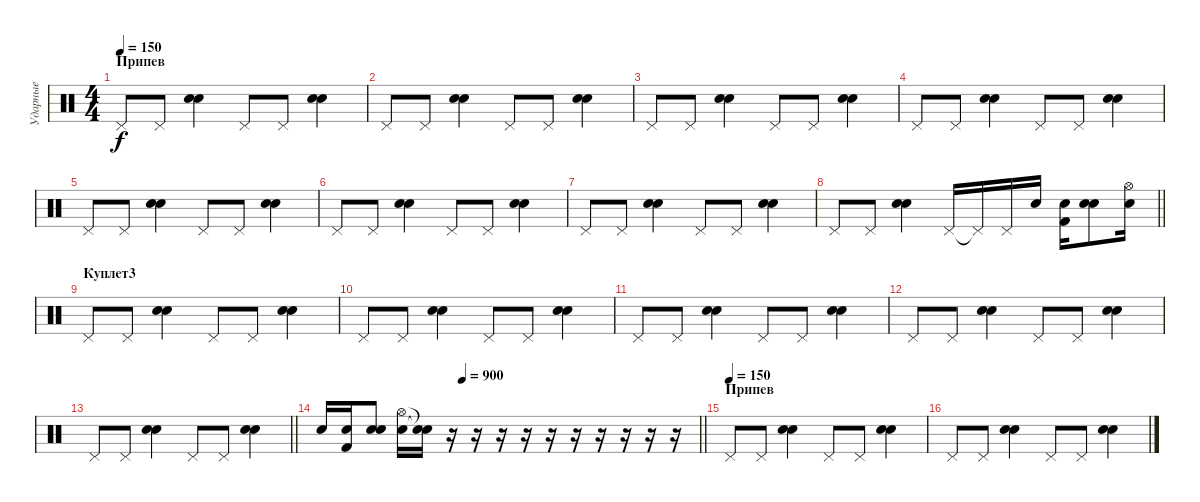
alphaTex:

\track ("Ударные" "Ударные") {instrument percussion}
\staff {score}
\articulation defaults
\ts (4 4)
\section ("" "Припев")
\tempo 150
\clef neutral
\ks c "Pedal Hi-Hat (hit)".8{dy f} "Pedal Hi-Hat (hit)".8
("Electric Snare (hit)" "Snare (hit) 2").4 "Pedal Hi-Hat (hit)".8 "Pedal Hi-Hat (hit)".8 ("Electric Snare (hit)" "Snare (hit) 2").4 |
"Pedal Hi-Hat (hit)".8 "Pedal Hi-Hat (hit)".8 ("Electric Snare (hit)" "Snare (hit) 2").4 "Pedal Hi-Hat (hit)".8 "Pedal Hi-Hat (hit)".8 ("Electric Snare (hit)" "Snare (hit) 2").4 |
"Pedal Hi-Hat (hit)".8 "Pedal Hi-Hat (hit)".8 ("Electric Snare (hit)" "Snare (hit) 2").4 "Pedal Hi-Hat (hit)".8 "Pedal Hi-Hat (hit)".8 ("Electric Snare (hit)" "Snare (hit) 2").4 |
"Pedal Hi-Hat (hit)".8 "Pedal Hi-Hat (hit)".8 ("Electric Snare (hit)" "Snare (hit) 2").4 "Pedal Hi-Hat (hit)".8 "Pedal Hi-Hat (hit)".8 ("Electric Snare (hit)" "Snare (hit) 2").4 |
"Pedal Hi-Hat (hit)".8 "Pedal Hi-Hat (hit)".8 ("Electric Snare (hit)" "Snare (hit) 2").4 "Pedal Hi-Hat (hit)".8 "Pedal Hi-Hat (hit)".8 ("Electric Snare (hit)" "Snare (hit) 2").4 |
"Pedal Hi-Hat (hit)".8 "Pedal Hi-Hat (hit)".8 ("Electric Snare (hit)" "Snare (hit) 2").4 "Pedal Hi-Hat (hit)".8 "Pedal Hi-Hat (hit)".8 ("Electric Snare (hit)" "Snare (hit) 2").4 |
"Pedal Hi-Hat (hit)".8 "Pedal Hi-Hat (hit)".8 ("Electric Snare (hit)" "Snare (hit) 2").4 "Pedal Hi-Hat (hit)".8 "Pedal Hi-Hat (hit)".8 ("Electric Snare (hit)" "Snare (hit) 2").4 |
\barLineRight lightlight "Pedal Hi-Hat (hit)".8 "Pedal Hi-Hat (hit)".8
("Electric Snare (hit)" "Snare (hit) 2").4 "Pedal Hi-Hat (hit)".16 "Pedal Hi-Hat (hit)"{t}.16 "Pedal Hi-Hat (hit)".16 "Electric Snare (hit)".16 ("Electric Snare (hit)" "Kick (hit) 2").16 ("Electric Snare (hit)" "Snare (hit) 2").8 ("Hi-Hat (open)" "Electric Snare (hit)").16 |
\section ("" "Куплет3")
"Pedal Hi-Hat (hit)".8 "Pedal Hi-Hat (hit)".8 ("Electric Snare (hit)" "Snare (hit) 2").4 "Pedal Hi-Hat (hit)".8 "Pedal Hi-Hat (hit)".8 ("Electric Snare (hit)" "Snare (hit) 2").4 |
"Pedal Hi-Hat (hit)".8 "Pedal Hi-Hat (hit)".8 ("Electric Snare (hit)" "Snare (hit) 2").4 "Pedal Hi-Hat (hit)".8 "Pedal Hi-Hat (hit)".8 ("Electric Snare (hit)" "Snare (hit) 2").4 |
"Pedal Hi-Hat (hit)".8 "Pedal Hi-Hat (hit)".8 ("Electric Snare (hit)" "Snare (hit) 2").4 "Pedal Hi-Hat (hit)".8 "Pedal Hi-Hat (hit)".8 ("Electric Snare (hit)" "Snare (hit) 2").4 |
"Pedal Hi-Hat (hit)".8 "Pedal Hi-Hat (hit)".8 ("Electric Snare (hit)" "Snare (hit) 2").4 "Pedal Hi-Hat (hit)".8 "Pedal Hi-Hat (hit)".8 ("Electric Snare (hit)" "Snare (hit) 2").4 |
\barLineRight lightlight "Pedal Hi-Hat (hit)".8 "Pedal Hi-Hat (hit)".8
("Electric Snare (hit)" "Snare (hit) 2").4 "Pedal Hi-Hat (hit)".8 "Pedal Hi-Hat (hit)".8 ("Electric Snare (hit)" "Snare (hit) 2").4 |
\tempo (900 0.375)
\barLineRight lightlight "Electric Snare (hit)".16
("Electric Snare (hit)" "Kick (hit) 2").16 ("Electric Snare (hit)" "Snare (hit) 2").8 ("Hi-Hat (open)" "Electric Snare (hit)").16 ("Snare (hit)"{t} "Snare (hit)"{t}).16 r.16 r.16 r.16 r.16 r.16 r.16 r.16 r.16 r.16 r.16 |
\section ("" "Припев")
\tempo (150)
"Pedal Hi-Hat (hit)".8 "Pedal Hi-Hat (hit)".8 ("Electric Snare (hit)" "Snare (hit) 2").4 "Pedal Hi-Hat (hit)".8 "Pedal Hi-Hat (hit)".8 ("Electric Snare (hit)" "Snare (hit) 2").4 |
"Pedal Hi-Hat (hit)".8 "Pedal Hi-Hat (hit)".8 ("Electric Snare (hit)" "Snare (hit) 2").4 "Pedal Hi-Hat (hit)".8 "Pedal Hi-Hat (hit)".8 ("Electric Snare (hit)" "Snare (hit) 2").4
